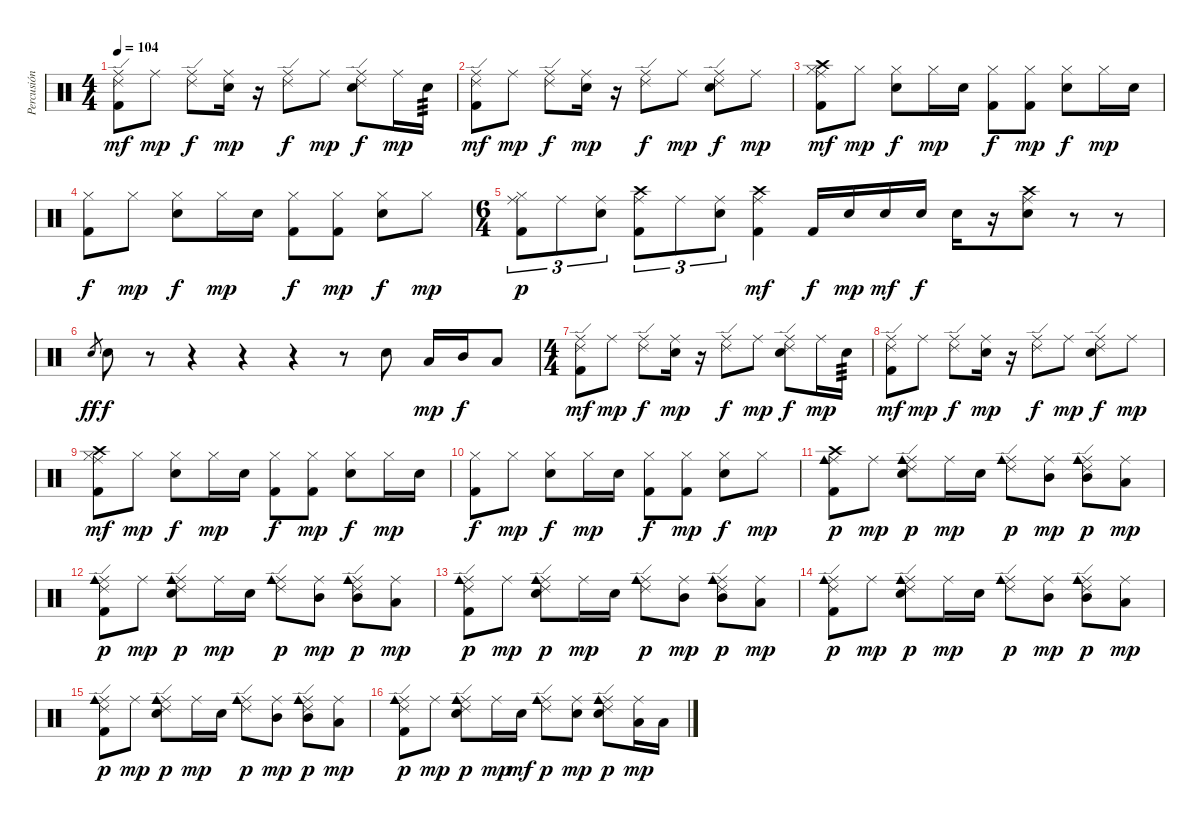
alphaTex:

\track ("Percusión" "Percusión") {instrument percussion}
\staff {score}
\articulation defaults
\ts (4 4)
\tempo 104
\clef neutral
\ks c
("Ride (edge) 2" "Ride (middle)" "Kick (hit) 2").8{dy mf} "Ride (middle)".8{dy mp} ("Ride (edge) 2" "Ride (middle)").8{dy f} ("Ride (middle)" "Snare (hit) 2").16{dy mp} r.16 ("Ride (edge) 2" "Ride (middle)").8{dy f} "Ride (middle)".8{dy mp} ("Ride (edge) 2" "Ride (middle)" "Snare (hit) 2").8{dy f} "Ride (middle)".16{dy mp} "Snare (hit) 2".16{tp 3} |
("Ride (edge) 2" "Ride (middle)" "Kick (hit) 2").8{dy mf} "Ride (middle)".8{dy mp} ("Ride (edge) 2" "Ride (middle)").8{dy f} ("Ride (middle)" "Snare (hit) 2").16{dy mp} r.16 ("Ride (edge) 2" "Ride (middle)").8{dy f} "Ride (middle)".8{dy mp} ("Ride (edge) 2" "Ride (middle)" "Snare (hit) 2").8{dy f} "Ride (middle)".8{dy mp} |
("Crash high (hit)" "Ride (middle)" "Hi-Hat (closed)" "Kick (hit) 2").8{dy mf} "Hi-Hat (closed)".8{dy mp} ("Hi-Hat (closed)" "Snare (hit) 2").8{dy f} "Hi-Hat (closed)".16{dy mp} "Snare (hit) 2".16 ("Hi-Hat (closed)" "Kick (hit) 2").8{dy f} ("Hi-Hat (closed)" "Kick (hit) 2").8{dy mp} ("Hi-Hat (closed)" "Snare (hit) 2").8{dy f} "Hi-Hat (closed)".16{dy mp} "Snare (hit) 2".16 |
("Hi-Hat (closed)" "Kick (hit) 2").8{dy f} "Hi-Hat (closed)".8{dy mp} ("Hi-Hat (closed)" "Snare (hit) 2").8{dy f} "Hi-Hat (closed)".16{dy mp} "Snare (hit) 2".16 ("Hi-Hat (closed)" "Kick (hit) 2").8{dy f} ("Hi-Hat (closed)" "Kick (hit) 2").8{dy mp} ("Hi-Hat (closed)" "Snare (hit) 2").8{dy f} "Hi-Hat (closed)".8{dy mp} |
\ts (6 4)
("Ride (middle)" "Hi-Hat (closed)" "Kick (hit) 2").8{tu (3 2) dy p} "Ride (middle)".8{tu (3 2)} ("Ride (middle)" "Snare (hit) 2").8{tu (3 2)} ("Crash high (hit)" "Ride (middle)" "Kick (hit) 2").8{tu (3 2)} "Ride (middle)".8{tu (3 2)} ("Ride (middle)" "Snare (hit) 2").8{tu (3 2)} ("Crash high (hit)" "Ride (middle)" "Kick (hit) 2").4{dy mf} "Kick (hit) 2".16{dy f} "Snare (hit) 2".16{dy mp} "Snare (hit) 2".16{dy mf} "Snare (hit) 2".16{dy f} "Snare (hit) 2".16 r.16 ("Crash high (hit)" "Ride (middle)" "Snare (hit) 2").8 r.8 r.8 |
"Snare (hit) 2".8{gr dy ff} "Snare (hit) 2".8{dy f} r.8 r.4 r.4 r.4 r.8 "Snare (hit) 2".8 "Low Tom (hit)".16{dy mp} "Mid Tom (hit)".16{dy f} "Low Tom (hit)".8 |
\ts (4 4)
("Ride (edge) 2" "Ride (middle)" "Kick (hit) 2").8{dy mf} "Ride (middle)".8{dy mp} ("Ride (edge) 2" "Ride (middle)").8{dy f} ("Ride (middle)" "Snare (hit) 2").16{dy mp} r.16 ("Ride (edge) 2" "Ride (middle)").8{dy f} "Ride (middle)".8{dy mp} ("Ride (edge) 2" "Ride (middle)" "Snare (hit) 2").8{dy f} "Ride (middle)".16{dy mp} "Snare (hit) 2".16{tp 3} |
("Ride (edge) 2" "Ride (middle)" "Kick (hit) 2").8{dy mf} "Ride (middle)".8{dy mp} ("Ride (edge) 2" "Ride (middle)").8{dy f} ("Ride (middle)" "Snare (hit) 2").16{dy mp} r.16 ("Ride (edge) 2" "Ride (middle)").8{dy f} "Ride (middle)".8{dy mp} ("Ride (edge) 2" "Ride (middle)" "Snare (hit) 2").8{dy f} "Ride (middle)".8{dy mp} |
("Crash high (hit)" "Ride (middle)" "Hi-Hat (closed)" "Kick (hit) 2").8{dy mf} "Hi-Hat (closed)".8{dy mp} ("Hi-Hat (closed)" "Snare (hit) 2").8{dy f} "Hi-Hat (closed)".16{dy mp} "Snare (hit) 2".16 ("Hi-Hat (closed)" "Kick (hit) 2").8{dy f} ("Hi-Hat (closed)" "Kick (hit) 2").8{dy mp} ("Hi-Hat (closed)" "Snare (hit) 2").8{dy f} "Hi-Hat (closed)".16{dy mp} "Snare (hit) 2".16 |
("Hi-Hat (closed)" "Kick (hit) 2").8{dy f} "Hi-Hat (closed)".8{dy mp} ("Hi-Hat (closed)" "Snare (hit) 2").8{dy f} "Hi-Hat (closed)".16{dy mp} "Snare (hit) 2".16 ("Hi-Hat (closed)" "Kick (hit) 2").8{dy f} ("Hi-Hat (closed)" "Kick (hit) 2").8{dy mp} ("Hi-Hat (closed)" "Snare (hit) 2").8{dy f} "Hi-Hat (closed)".8{dy mp} |
("Crash high (hit)" "Ride (middle)" "Cowbell medium (hit)" "Kick (hit) 2").8{dy p} "Ride (middle)".8{dy mp} ("Ride (edge) 2" "Ride (middle)" "Cowbell medium (hit)" "Snare (hit) 2").8{dy p} "Ride (middle)".16{dy mp} "Snare (hit) 2".16 ("Ride (edge) 2" "Ride (middle)" "Cowbell medium (hit)").8{dy p} ("Ride (middle)" "Mid Tom (hit)").8{dy mp} ("Ride (edge) 2" "Ride (middle)" "Cowbell medium (hit)" "Mid Tom (hit)").8{dy p} ("Ride (middle)" "Low Tom (hit)").8{dy mp} |
("Ride (edge) 2" "Ride (middle)" "Cowbell medium (hit)" "Kick (hit) 2").8{dy p} "Ride (middle)".8{dy mp} ("Ride (edge) 2" "Ride (middle)" "Cowbell medium (hit)" "Snare (hit) 2").8{dy p} "Ride (middle)".16{dy mp} "Snare (hit) 2".16 ("Ride (edge) 2" "Ride (middle)" "Cowbell medium (hit)").8{dy p} ("Ride (middle)" "Mid Tom (hit)").8{dy mp} ("Ride (edge) 2" "Ride (middle)" "Cowbell medium (hit)" "Mid Tom (hit)").8{dy p} ("Ride (middle)" "Low Tom (hit)").8{dy mp} |
("Ride (edge) 2" "Ride (middle)" "Cowbell medium (hit)" "Kick (hit) 2").8{dy p} "Ride (middle)".8{dy mp} ("Ride (edge) 2" "Ride (middle)" "Cowbell medium (hit)" "Snare (hit) 2").8{dy p} "Ride (middle)".16{dy mp} "Snare (hit) 2".16 ("Ride (edge) 2" "Ride (middle)" "Cowbell medium (hit)").8{dy p} ("Ride (middle)" "Mid Tom (hit)").8{dy mp} ("Ride (edge) 2" "Ride (middle)" "Cowbell medium (hit)" "Mid Tom (hit)").8{dy p} ("Ride (middle)" "Low Tom (hit)").8{dy mp} |
("Ride (edge) 2" "Ride (middle)" "Cowbell medium (hit)" "Kick (hit) 2").8{dy p} "Ride (middle)".8{dy mp} ("Ride (edge) 2" "Ride (middle)" "Cowbell medium (hit)" "Snare (hit) 2").8{dy p} "Ride (middle)".16{dy mp} "Snare (hit) 2".16 ("Ride (edge) 2" "Ride (middle)" "Cowbell medium (hit)").8{dy p} ("Ride (middle)" "Mid Tom (hit)").8{dy mp} ("Ride (edge) 2" "Ride (middle)" "Cowbell medium (hit)" "Mid Tom (hit)").8{dy p} ("Ride (middle)" "Low Tom (hit)").8{dy mp} |
("Ride (edge) 2" "Ride (middle)" "Cowbell medium (hit)" "Kick (hit) 2").8{dy p} "Ride (middle)".8{dy mp} ("Ride (edge) 2" "Ride (middle)" "Cowbell medium (hit)" "Snare (hit) 2").8{dy p} "Ride (middle)".16{dy mp} "Snare (hit) 2".16 ("Ride (edge) 2" "Ride (middle)" "Cowbell medium (hit)").8{dy p} ("Ride (middle)" "Mid Tom (hit)").8{dy mp} ("Ride (edge) 2" "Ride (middle)" "Cowbell medium (hit)" "Mid Tom (hit)").8{dy p} ("Ride (middle)" "Low Tom (hit)").8{dy mp} |
("Ride (edge) 2" "Ride (middle)" "Cowbell medium (hit)" "Kick (hit) 2").8{dy p} "Ride (middle)".8{dy mp} ("Ride (edge) 2" "Ride (middle)" "Cowbell medium (hit)" "Snare (hit) 2").8{dy p} "Ride (middle)".16{dy mp} "Snare (hit) 2".16{dy mf} ("Ride (edge) 2" "Ride (middle)" "Cowbell medium (hit)").8{dy p} ("Ride (middle)" "Snare (hit) 2").8{dy mp} ("Ride (edge) 2" "Ride (middle)" "Cowbell medium (hit)" "Snare (hit) 2").8{dy p} ("Ride (middle)" "Low Tom (hit)").16{dy mp} "Low Tom (hit)".16
